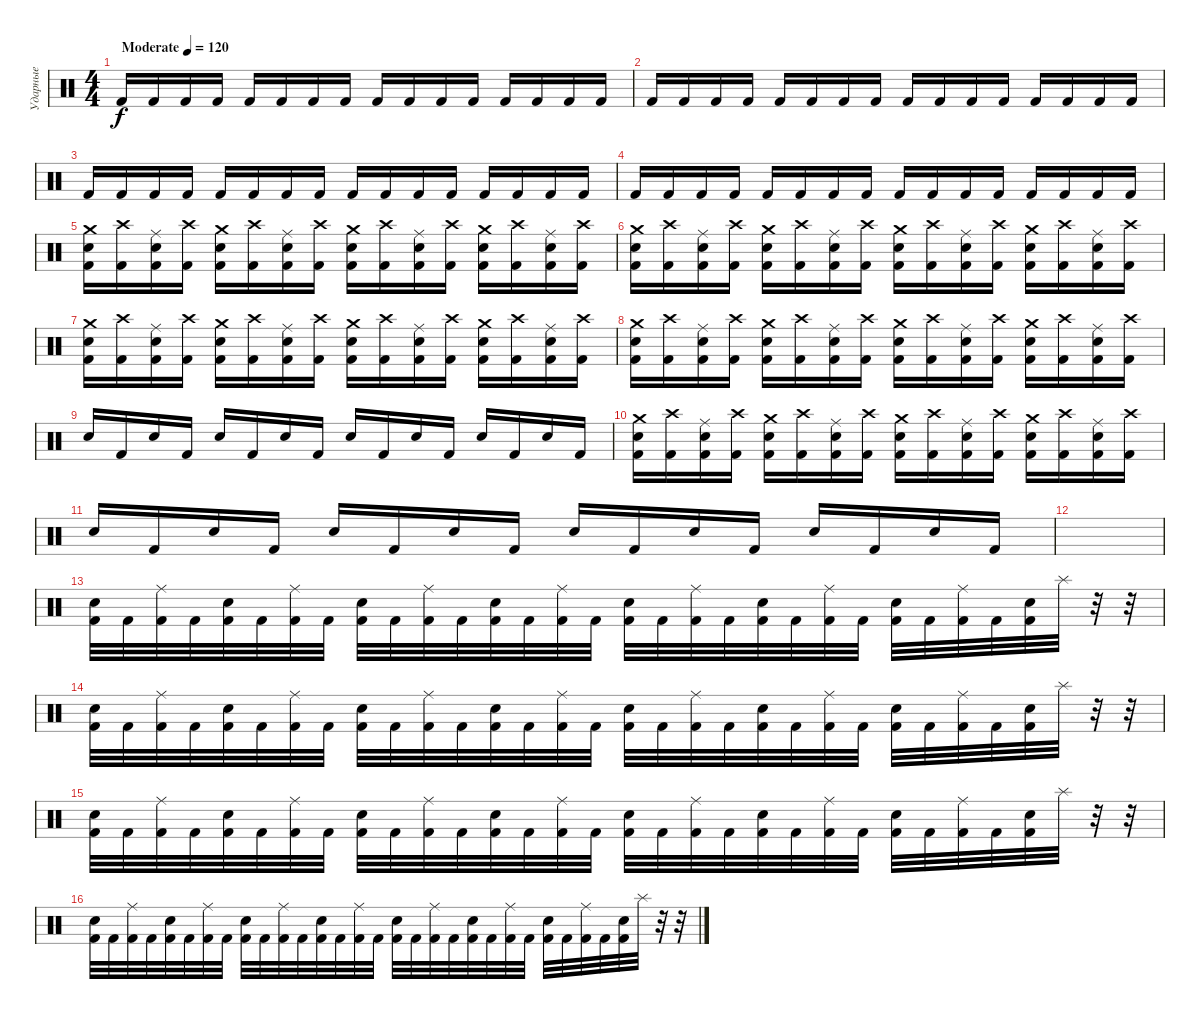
\track ("Ударные" "Ударные") {instrument percussion}
\staff {score}
\articulation defaults
\ts (4 4)
\tempo (120 "Moderate")
\clef neutral
\ks c "Kick (hit) 2".16{dy f} "Kick (hit) 2".16 "Kick (hit) 2".16 "Kick (hit) 2".16 "Kick (hit) 2".16 "Kick (hit) 2".16 "Kick (hit) 2".16 "Kick (hit) 2".16 "Kick (hit) 2".16 "Kick (hit) 2".16 "Kick (hit) 2".16 "Kick (hit) 2".16 "Kick (hit) 2".16 "Kick (hit) 2".16 "Kick (hit) 2".16 "Kick (hit) 2".16
|
"Kick (hit) 2".16 "Kick (hit) 2".16 "Kick (hit) 2".16 "Kick (hit) 2".16 "Kick (hit) 2".16 "Kick (hit) 2".16 "Kick (hit) 2".16 "Kick (hit) 2".16 "Kick (hit) 2".16 "Kick (hit) 2".16 "Kick (hit) 2".16 "Kick (hit) 2".16 "Kick (hit) 2".16 "Kick (hit) 2".16 "Kick (hit) 2".16 "Kick (hit) 2".16 |
"Kick (hit) 2".16 "Kick (hit) 2".16 "Kick (hit) 2".16 "Kick (hit) 2".16 "Kick (hit) 2".16 "Kick (hit) 2".16 "Kick (hit) 2".16 "Kick (hit) 2".16 "Kick (hit) 2".16 "Kick (hit) 2".16 "Kick (hit) 2".16 "Kick (hit) 2".16 "Kick (hit) 2".16 "Kick (hit) 2".16 "Kick (hit) 2".16 "Kick (hit) 2".16 |
"Kick (hit) 2".16 "Kick (hit) 2".16 "Kick (hit) 2".16 "Kick (hit) 2".16 "Kick (hit) 2".16 "Kick (hit) 2".16 "Kick (hit) 2".16 "Kick (hit) 2".16 "Kick (hit) 2".16 "Kick (hit) 2".16 "Kick (hit) 2".16 "Kick (hit) 2".16 "Kick (hit) 2".16 "Kick (hit) 2".16 "Kick (hit) 2".16 "Kick (hit) 2".16 |
("Crash medium (hit)" "Electric Snare (hit)" "Kick (hit) 2").16 ("Crash high (hit)" "Kick (hit) 2").16 ("Ride (middle)" "Electric Snare (hit)" "Kick (hit) 2").16 ("Crash high (hit)" "Kick (hit) 2").16 ("Crash medium (hit)" "Electric Snare (hit)" "Kick (hit) 2").16 ("Crash high (hit)" "Kick (hit) 2").16 ("Ride (middle)" "Electric Snare (hit)" "Kick (hit) 2").16 ("Crash high (hit)" "Kick (hit) 2").16 ("Crash medium (hit)" "Electric Snare (hit)" "Kick (hit) 2").16 ("Crash high (hit)" "Kick (hit) 2").16 ("Ride (middle)" "Electric Snare (hit)" "Kick (hit) 2").16 ("Crash high (hit)" "Kick (hit) 2").16 ("Crash medium (hit)" "Electric Snare (hit)" "Kick (hit) 2").16 ("Crash high (hit)" "Kick (hit) 2").16 ("Ride (middle)" "Electric Snare (hit)" "Kick (hit) 2").16 ("Crash high (hit)" "Kick (hit) 2").16 |
("Crash medium (hit)" "Electric Snare (hit)" "Kick (hit) 2").16 ("Crash high (hit)" "Kick (hit) 2").16 ("Ride (middle)" "Electric Snare (hit)" "Kick (hit) 2").16 ("Crash high (hit)" "Kick (hit) 2").16 ("Crash medium (hit)" "Electric Snare (hit)" "Kick (hit) 2").16 ("Crash high (hit)" "Kick (hit) 2").16 ("Ride (middle)" "Electric Snare (hit)" "Kick (hit) 2").16 ("Crash high (hit)" "Kick (hit) 2").16 ("Crash medium (hit)" "Electric Snare (hit)" "Kick (hit) 2").16 ("Crash high (hit)" "Kick (hit) 2").16 ("Ride (middle)" "Electric Snare (hit)" "Kick (hit) 2").16 ("Crash high (hit)" "Kick (hit) 2").16 ("Crash medium (hit)" "Electric Snare (hit)" "Kick (hit) 2").16 ("Crash high (hit)" "Kick (hit) 2").16 ("Ride (middle)" "Electric Snare (hit)" "Kick (hit) 2").16 ("Crash high (hit)" "Kick (hit) 2").16 |
("Crash medium (hit)" "Electric Snare (hit)" "Kick (hit) 2").16 ("Crash high (hit)" "Kick (hit) 2").16 ("Ride (middle)" "Electric Snare (hit)" "Kick (hit) 2").16 ("Crash high (hit)" "Kick (hit) 2").16 ("Crash medium (hit)" "Electric Snare (hit)" "Kick (hit) 2").16 ("Crash high (hit)" "Kick (hit) 2").16 ("Ride (middle)" "Electric Snare (hit)" "Kick (hit) 2").16 ("Crash high (hit)" "Kick (hit) 2").16 ("Crash medium (hit)" "Electric Snare (hit)" "Kick (hit) 2").16 ("Crash high (hit)" "Kick (hit) 2").16 ("Ride (middle)" "Electric Snare (hit)" "Kick (hit) 2").16 ("Crash high (hit)" "Kick (hit) 2").16 ("Crash medium (hit)" "Electric Snare (hit)" "Kick (hit) 2").16 ("Crash high (hit)" "Kick (hit) 2").16 ("Ride (middle)" "Electric Snare (hit)" "Kick (hit) 2").16 ("Crash high (hit)" "Kick (hit) 2").16 |
("Crash medium (hit)" "Electric Snare (hit)" "Kick (hit) 2").16 ("Crash high (hit)" "Kick (hit) 2").16 ("Ride (middle)" "Electric Snare (hit)" "Kick (hit) 2").16 ("Crash high (hit)" "Kick (hit) 2").16 ("Crash medium (hit)" "Electric Snare (hit)" "Kick (hit) 2").16 ("Crash high (hit)" "Kick (hit) 2").16 ("Ride (middle)" "Electric Snare (hit)" "Kick (hit) 2").16 ("Crash high (hit)" "Kick (hit) 2").16 ("Crash medium (hit)" "Electric Snare (hit)" "Kick (hit) 2").16 ("Crash high (hit)" "Kick (hit) 2").16 ("Ride (middle)" "Electric Snare (hit)" "Kick (hit) 2").16 ("Crash high (hit)" "Kick (hit) 2").16 ("Crash medium (hit)" "Electric Snare (hit)" "Kick (hit) 2").16 ("Crash high (hit)" "Kick (hit) 2").16 ("Ride (middle)" "Electric Snare (hit)" "Kick (hit) 2").16 ("Crash high (hit)" "Kick (hit) 2").16 |
"Snare (hit) 2".16 "Kick (hit) 2".16 "Snare (hit) 2".16 "Kick (hit) 2".16 "Snare (hit) 2".16 "Kick (hit) 2".16 "Snare (hit) 2".16 "Kick (hit) 2".16 "Snare (hit) 2".16 "Kick (hit) 2".16 "Snare (hit) 2".16 "Kick (hit) 2".16 "Snare (hit) 2".16 "Kick (hit) 2".16 "Snare (hit) 2".16 "Kick (hit) 2".16 |
("Crash medium (hit)" "Electric Snare (hit)" "Kick (hit) 2").16 ("Crash high (hit)" "Kick (hit) 2").16 ("Ride (middle)" "Electric Snare (hit)" "Kick (hit) 2").16 ("Crash high (hit)" "Kick (hit) 2").16 ("Crash medium (hit)" "Electric Snare (hit)" "Kick (hit) 2").16 ("Crash high (hit)" "Kick (hit) 2").16 ("Ride (middle)" "Electric Snare (hit)" "Kick (hit) 2").16 ("Crash high (hit)" "Kick (hit) 2").16 ("Crash medium (hit)" "Electric Snare (hit)" "Kick (hit) 2").16 ("Crash high (hit)" "Kick (hit) 2").16 ("Ride (middle)" "Electric Snare (hit)" "Kick (hit) 2").16 ("Crash high (hit)" "Kick (hit) 2").16 ("Crash medium (hit)" "Electric Snare (hit)" "Kick (hit) 2").16 ("Crash high (hit)" "Kick (hit) 2").16 ("Ride (middle)" "Electric Snare (hit)" "Kick (hit) 2").16 ("Crash high (hit)" "Kick (hit) 2").16 |
"Snare (hit) 2".16 "Kick (hit) 2".16 "Snare (hit) 2".16 "Kick (hit) 2".16 "Snare (hit) 2".16 "Kick (hit) 2".16 "Snare (hit) 2".16 "Kick (hit) 2".16 "Snare (hit) 2".16 "Kick (hit) 2".16 "Snare (hit) 2".16 "Kick (hit) 2".16 "Snare (hit) 2".16 "Kick (hit) 2".16 "Snare (hit) 2".16 "Kick (hit) 2".16 |
|
("Electric Snare (hit)" "Kick (hit) 2").32 "Kick (hit) 2".32 ("Ride (middle)" "Kick (hit) 2").32 "Kick (hit) 2".32 ("Electric Snare (hit)" "Kick (hit) 2").32 "Kick (hit) 2".32 ("Ride (middle)" "Kick (hit) 2").32 "Kick (hit) 2".32 ("Electric Snare (hit)" "Kick (hit) 2").32 "Kick (hit) 2".32 ("Ride (middle)" "Kick (hit) 2").32 "Kick (hit) 2".32 ("Electric Snare (hit)" "Kick (hit) 2").32 "Kick (hit) 2".32 ("Ride (middle)" "Kick (hit) 2").32 "Kick (hit) 2".32 ("Electric Snare (hit)" "Kick (hit) 2").32 "Kick (hit) 2".32 ("Ride (middle)" "Kick (hit) 2").32 "Kick (hit) 2".32 ("Electric Snare (hit)" "Kick (hit) 2").32 "Kick (hit) 2".32 ("Ride (middle)" "Kick (hit) 2").32 "Kick (hit) 2".32 ("Electric Snare (hit)" "Kick (hit) 2").32 "Kick (hit) 2".32 ("Ride (middle)" "Kick (hit) 2").32 "Kick (hit) 2".32 ("Electric Snare (hit)" "Kick (hit) 2").32 "Splash (hit)".32 r.32 r.32 |
("Electric Snare (hit)" "Kick (hit) 2").32 "Kick (hit) 2".32 ("Ride (middle)" "Kick (hit) 2").32 "Kick (hit) 2".32 ("Electric Snare (hit)" "Kick (hit) 2").32 "Kick (hit) 2".32 ("Ride (middle)" "Kick (hit) 2").32 "Kick (hit) 2".32 ("Electric Snare (hit)" "Kick (hit) 2").32 "Kick (hit) 2".32 ("Ride (middle)" "Kick (hit) 2").32 "Kick (hit) 2".32 ("Electric Snare (hit)" "Kick (hit) 2").32 "Kick (hit) 2".32 ("Ride (middle)" "Kick (hit) 2").32 "Kick (hit) 2".32 ("Electric Snare (hit)" "Kick (hit) 2").32 "Kick (hit) 2".32 ("Ride (middle)" "Kick (hit) 2").32 "Kick (hit) 2".32 ("Electric Snare (hit)" "Kick (hit) 2").32 "Kick (hit) 2".32 ("Ride (middle)" "Kick (hit) 2").32 "Kick (hit) 2".32 ("Electric Snare (hit)" "Kick (hit) 2").32 "Kick (hit) 2".32 ("Ride (middle)" "Kick (hit) 2").32 "Kick (hit) 2".32 ("Electric Snare (hit)" "Kick (hit) 2").32 "Splash (hit)".32 r.32 r.32 |
("Electric Snare (hit)" "Kick (hit) 2").32 "Kick (hit) 2".32 ("Ride (middle)" "Kick (hit) 2").32 "Kick (hit) 2".32 ("Electric Snare (hit)" "Kick (hit) 2").32 "Kick (hit) 2".32 ("Ride (middle)" "Kick (hit) 2").32 "Kick (hit) 2".32 ("Electric Snare (hit)" "Kick (hit) 2").32 "Kick (hit) 2".32 ("Ride (middle)" "Kick (hit) 2").32 "Kick (hit) 2".32 ("Electric Snare (hit)" "Kick (hit) 2").32 "Kick (hit) 2".32 ("Ride (middle)" "Kick (hit) 2").32 "Kick (hit) 2".32 ("Electric Snare (hit)" "Kick (hit) 2").32 "Kick (hit) 2".32 ("Ride (middle)" "Kick (hit) 2").32 "Kick (hit) 2".32 ("Electric Snare (hit)" "Kick (hit) 2").32 "Kick (hit) 2".32 ("Ride (middle)" "Kick (hit) 2").32 "Kick (hit) 2".32 ("Electric Snare (hit)" "Kick (hit) 2").32 "Kick (hit) 2".32 ("Ride (middle)" "Kick (hit) 2").32 "Kick (hit) 2".32 ("Electric Snare (hit)" "Kick (hit) 2").32 "Splash (hit)".32 r.32 r.32 |
("Electric Snare (hit)" "Kick (hit) 2").32 "Kick (hit) 2".32 ("Ride (middle)" "Kick (hit) 2").32 "Kick (hit) 2".32 ("Electric Snare (hit)" "Kick (hit) 2").32 "Kick (hit) 2".32 ("Ride (middle)" "Kick (hit) 2").32 "Kick (hit) 2".32 ("Electric Snare (hit)" "Kick (hit) 2").32 "Kick (hit) 2".32 ("Ride (middle)" "Kick (hit) 2").32 "Kick (hit) 2".32 ("Electric Snare (hit)" "Kick (hit) 2").32 "Kick (hit) 2".32 ("Ride (middle)" "Kick (hit) 2").32 "Kick (hit) 2".32 ("Electric Snare (hit)" "Kick (hit) 2").32 "Kick (hit) 2".32 ("Ride (middle)" "Kick (hit) 2").32 "Kick (hit) 2".32 ("Electric Snare (hit)" "Kick (hit) 2").32 "Kick (hit) 2".32 ("Ride (middle)" "Kick (hit) 2").32 "Kick (hit) 2".32 ("Electric Snare (hit)" "Kick (hit) 2").32 "Kick (hit) 2".32 ("Ride (middle)" "Kick (hit) 2").32 "Kick (hit) 2".32 ("Electric Snare (hit)" "Kick (hit) 2").32 "Splash (hit)".32 r.32 r.32
